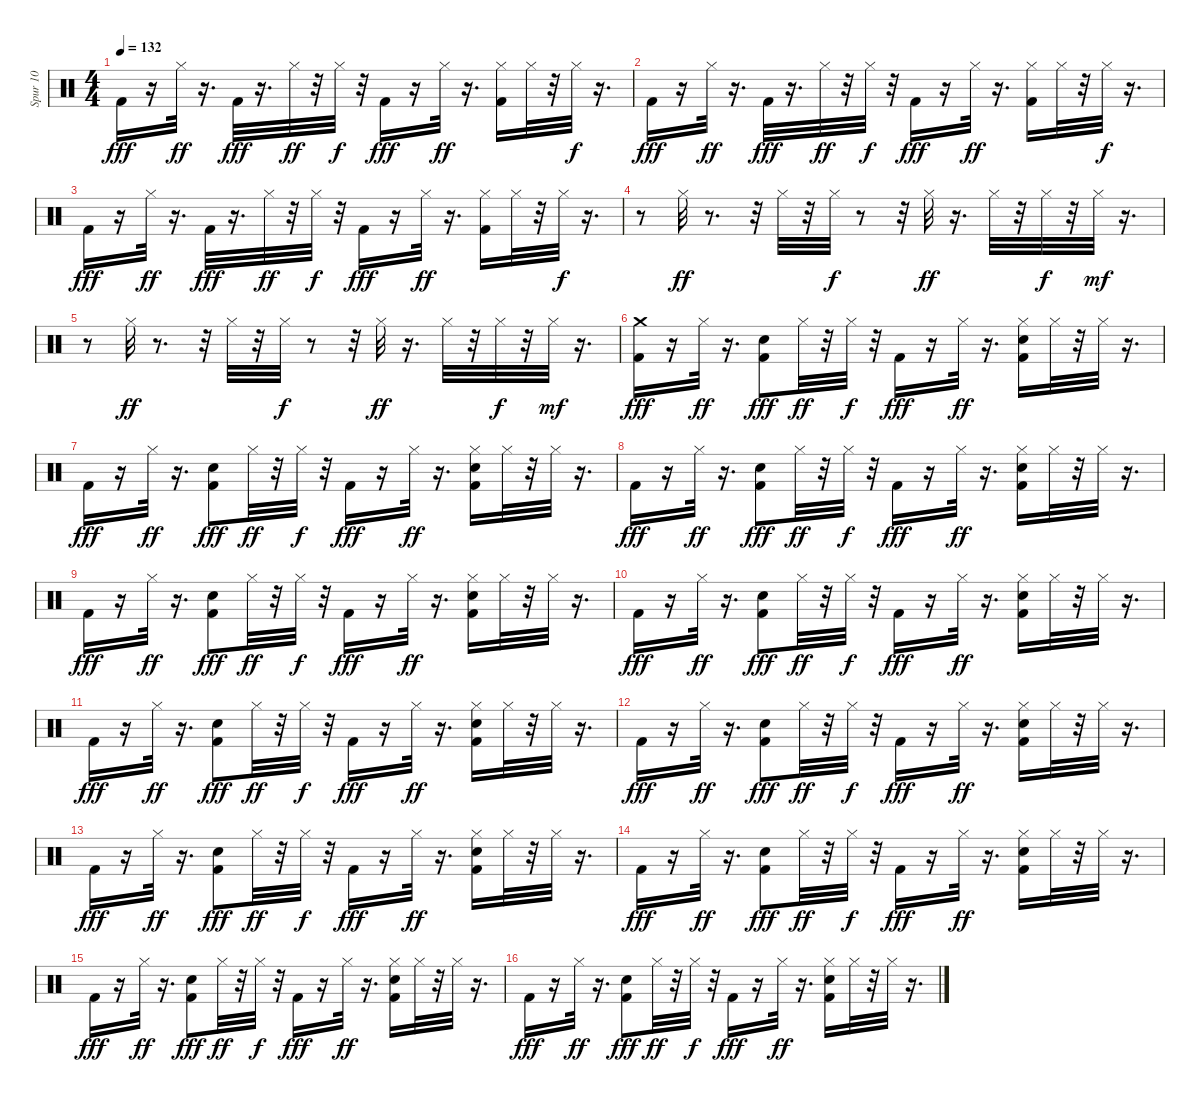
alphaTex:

\track ("Spur 10" "Spur 10") {instrument percussion}
\staff {score}
\articulation defaults
\ts (4 4)
\tempo 132
\clef neutral
\ks c "Kick (hit) 2".16{dy fff}
r.16 "Hi-Hat (closed)".32{dy ff} r.16{d} "Kick (hit) 2".32{dy fff} r.16{d} "Hi-Hat (closed)".32{dy ff} r.32 "Hi-Hat (closed)".32{dy f} r.32 "Kick (hit) 2".16{dy fff} r.16 "Hi-Hat (closed)".32{dy ff} r.16{d} ("Kick (hit) 2" "Hi-Hat (closed)").16 "Hi-Hat (closed)".32 r.32 "Hi-Hat (closed)".32{dy f} r.16{d} |
"Kick (hit) 2".16{dy fff} r.16 "Hi-Hat (closed)".32{dy ff} r.16{d} "Kick (hit) 2".32{dy fff} r.16{d} "Hi-Hat (closed)".32{dy ff} r.32 "Hi-Hat (closed)".32{dy f} r.32 "Kick (hit) 2".16{dy fff} r.16 "Hi-Hat (closed)".32{dy ff} r.16{d} ("Kick (hit) 2" "Hi-Hat (closed)").16 "Hi-Hat (closed)".32 r.32 "Hi-Hat (closed)".32{dy f} r.16{d} |
"Kick (hit) 2".16{dy fff} r.16 "Hi-Hat (closed)".32{dy ff} r.16{d} "Kick (hit) 2".32{dy fff} r.16{d} "Hi-Hat (closed)".32{dy ff} r.32 "Hi-Hat (closed)".32{dy f} r.32 "Kick (hit) 2".16{dy fff} r.16 "Hi-Hat (closed)".32{dy ff} r.16{d} ("Kick (hit) 2" "Hi-Hat (closed)").16 "Hi-Hat (closed)".32 r.32 "Hi-Hat (closed)".32{dy f} r.16{d} |
r.8 "Hi-Hat (closed)".32{dy ff} r.8{d} r.32 "Hi-Hat (closed)".32 r.32 "Hi-Hat (closed)".32{dy f} r.8 r.32 "Hi-Hat (closed)".32{dy ff} r.16{d} "Hi-Hat (closed)".32 r.32 "Hi-Hat (closed)".32{dy f} r.32 "Hi-Hat (closed)".32{dy mf} r.16{d} |
r.8 "Hi-Hat (closed)".32{dy ff} r.8{d} r.32 "Hi-Hat (closed)".32 r.32 "Hi-Hat (closed)".32{dy f} r.8 r.32 "Hi-Hat (closed)".32{dy ff} r.16{d} "Hi-Hat (closed)".32 r.32 "Hi-Hat (closed)".32{dy f} r.32 "Hi-Hat (closed)".32{dy mf} r.16{d} |
("Crash medium (hit)" "Kick (hit) 2").16{dy fff} r.16 "Hi-Hat (closed)".32{dy ff} r.16{d} ("Snare (hit) 2" "Kick (hit) 2").8{dy fff} "Hi-Hat (closed)".32{dy ff} r.32 "Hi-Hat (closed)".32{dy f} r.32 "Kick (hit) 2".16{dy fff} r.16 "Hi-Hat (closed)".32{dy ff} r.16{d} ("Snare (hit) 2" "Kick (hit) 2" "Hi-Hat (closed)").16 "Hi-Hat (closed)".32 r.32 "Hi-Hat (closed)".32 r.16{d} |
"Kick (hit) 2".16{dy fff} r.16 "Hi-Hat (closed)".32{dy ff} r.16{d} ("Snare (hit) 2" "Kick (hit) 2").8{dy fff} "Hi-Hat (closed)".32{dy ff} r.32 "Hi-Hat (closed)".32{dy f} r.32 "Kick (hit) 2".16{dy fff} r.16 "Hi-Hat (closed)".32{dy ff} r.16{d} ("Snare (hit) 2" "Kick (hit) 2" "Hi-Hat (closed)").16 "Hi-Hat (closed)".32 r.32 "Hi-Hat (closed)".32 r.16{d} |
"Kick (hit) 2".16{dy fff} r.16 "Hi-Hat (closed)".32{dy ff} r.16{d} ("Snare (hit) 2" "Kick (hit) 2").8{dy fff} "Hi-Hat (closed)".32{dy ff} r.32 "Hi-Hat (closed)".32{dy f} r.32 "Kick (hit) 2".16{dy fff} r.16 "Hi-Hat (closed)".32{dy ff} r.16{d} ("Snare (hit) 2" "Kick (hit) 2" "Hi-Hat (closed)").16 "Hi-Hat (closed)".32 r.32 "Hi-Hat (closed)".32 r.16{d} |
"Kick (hit) 2".16{dy fff} r.16 "Hi-Hat (closed)".32{dy ff} r.16{d} ("Snare (hit) 2" "Kick (hit) 2").8{dy fff} "Hi-Hat (closed)".32{dy ff} r.32 "Hi-Hat (closed)".32{dy f} r.32 "Kick (hit) 2".16{dy fff} r.16 "Hi-Hat (closed)".32{dy ff} r.16{d} ("Snare (hit) 2" "Kick (hit) 2" "Hi-Hat (closed)").16 "Hi-Hat (closed)".32 r.32 "Hi-Hat (closed)".32 r.16{d} |
"Kick (hit) 2".16{dy fff} r.16 "Hi-Hat (closed)".32{dy ff} r.16{d} ("Snare (hit) 2" "Kick (hit) 2").8{dy fff} "Hi-Hat (closed)".32{dy ff} r.32 "Hi-Hat (closed)".32{dy f} r.32 "Kick (hit) 2".16{dy fff} r.16 "Hi-Hat (closed)".32{dy ff} r.16{d} ("Snare (hit) 2" "Kick (hit) 2" "Hi-Hat (closed)").16 "Hi-Hat (closed)".32 r.32 "Hi-Hat (closed)".32 r.16{d} |
"Kick (hit) 2".16{dy fff} r.16 "Hi-Hat (closed)".32{dy ff} r.16{d} ("Snare (hit) 2" "Kick (hit) 2").8{dy fff} "Hi-Hat (closed)".32{dy ff} r.32 "Hi-Hat (closed)".32{dy f} r.32 "Kick (hit) 2".16{dy fff} r.16 "Hi-Hat (closed)".32{dy ff} r.16{d} ("Snare (hit) 2" "Kick (hit) 2" "Hi-Hat (closed)").16 "Hi-Hat (closed)".32 r.32 "Hi-Hat (closed)".32 r.16{d} |
"Kick (hit) 2".16{dy fff} r.16 "Hi-Hat (closed)".32{dy ff} r.16{d} ("Snare (hit) 2" "Kick (hit) 2").8{dy fff} "Hi-Hat (closed)".32{dy ff} r.32 "Hi-Hat (closed)".32{dy f} r.32 "Kick (hit) 2".16{dy fff} r.16 "Hi-Hat (closed)".32{dy ff} r.16{d} ("Snare (hit) 2" "Kick (hit) 2" "Hi-Hat (closed)").16 "Hi-Hat (closed)".32 r.32 "Hi-Hat (closed)".32 r.16{d} |
"Kick (hit) 2".16{dy fff} r.16 "Hi-Hat (closed)".32{dy ff} r.16{d} ("Snare (hit) 2" "Kick (hit) 2").8{dy fff} "Hi-Hat (closed)".32{dy ff} r.32 "Hi-Hat (closed)".32{dy f} r.32 "Kick (hit) 2".16{dy fff} r.16 "Hi-Hat (closed)".32{dy ff} r.16{d} ("Snare (hit) 2" "Kick (hit) 2" "Hi-Hat (closed)").16 "Hi-Hat (closed)".32 r.32 "Hi-Hat (closed)".32 r.16{d} |
"Kick (hit) 2".16{dy fff} r.16 "Hi-Hat (closed)".32{dy ff} r.16{d} ("Snare (hit) 2" "Kick (hit) 2").8{dy fff} "Hi-Hat (closed)".32{dy ff} r.32 "Hi-Hat (closed)".32{dy f} r.32 "Kick (hit) 2".16{dy fff} r.16 "Hi-Hat (closed)".32{dy ff} r.16{d} ("Snare (hit) 2" "Kick (hit) 2" "Hi-Hat (closed)").16 "Hi-Hat (closed)".32 r.32 "Hi-Hat (closed)".32 r.16{d} |
"Kick (hit) 2".16{dy fff} r.16 "Hi-Hat (closed)".32{dy ff} r.16{d} ("Snare (hit) 2" "Kick (hit) 2").8{dy fff} "Hi-Hat (closed)".32{dy ff} r.32 "Hi-Hat (closed)".32{dy f} r.32 "Kick (hit) 2".16{dy fff} r.16 "Hi-Hat (closed)".32{dy ff} r.16{d} ("Snare (hit) 2" "Kick (hit) 2" "Hi-Hat (closed)").16 "Hi-Hat (closed)".32 r.32 "Hi-Hat (closed)".32 r.16{d} |
"Kick (hit) 2".16{dy fff} r.16 "Hi-Hat (closed)".32{dy ff} r.16{d} ("Snare (hit) 2" "Kick (hit) 2").8{dy fff} "Hi-Hat (closed)".32{dy ff} r.32 "Hi-Hat (closed)".32{dy f} r.32 "Kick (hit) 2".16{dy fff} r.16 "Hi-Hat (closed)".32{dy ff} r.16{d} ("Snare (hit) 2" "Kick (hit) 2" "Hi-Hat (closed)").16 "Hi-Hat (closed)".32 r.32 "Hi-Hat (closed)".32 r.16{d}
